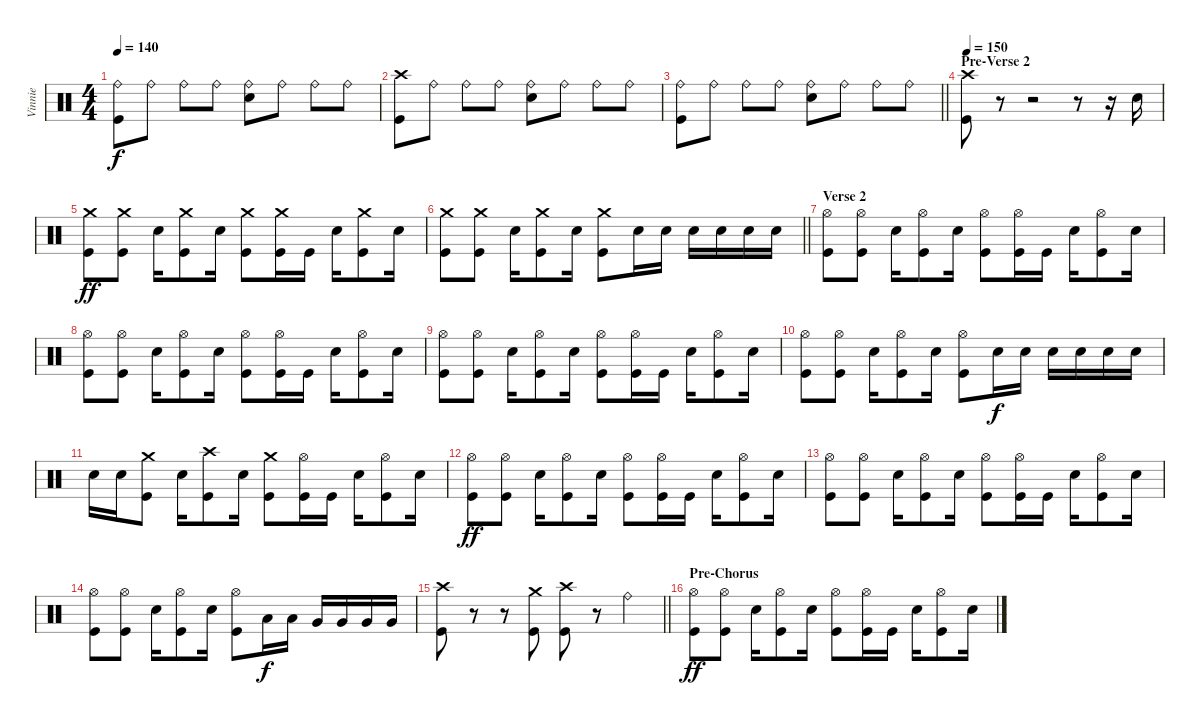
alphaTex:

\track ("Vinnie" "Vinnie") {instrument percussion}
\staff {score}
\articulation defaults
\ts (4 4)
\tempo 140
\clef neutral
\ks c
("Ride (bell)" "Kick (hit)").8{dy f} "Ride (bell)".8 "Ride (bell)".8 "Ride (bell)".8 ("Ride (bell)" "Electric Snare (hit)").8 "Ride (bell)".8 "Ride (bell)".8 "Ride (bell)".8 |
("Crash high (hit)" "Kick (hit)").8 "Ride (bell)".8 "Ride (bell)".8 "Ride (bell)".8 ("Ride (bell)" "Electric Snare (hit)").8 "Ride (bell)".8 "Ride (bell)".8 "Ride (bell)".8 |
\barLineRight lightlight
("Ride (bell)" "Kick (hit)").8 "Ride (bell)".8 "Ride (bell)".8 "Ride (bell)".8 ("Ride (bell)" "Electric Snare (hit)").8 "Ride (bell)".8 "Ride (bell)".8 "Ride (bell)".8 |
\section ("" "Pre-Verse 2")
\tempo 150
("Crash high (hit)" "Kick (hit)").8 r.8{volume 0} r.2 r.8 r.16 "Electric Snare (hit)".16{volume 16} |
("Crash medium (hit)" "Kick (hit)").8{dy ff} ("Crash medium (hit)" "Kick (hit)").8 "Electric Snare (hit)".16 ("Crash medium (hit)" "Kick (hit)").8 "Electric Snare (hit)".16 ("Crash medium (hit)" "Kick (hit)").8 ("Crash medium (hit)" "Kick (hit)").16 "Kick (hit)".16 "Electric Snare (hit)".16 ("Crash medium (hit)" "Kick (hit)").8 "Electric Snare (hit)".16 |
\barLineRight lightlight
("Crash medium (hit)" "Kick (hit)").8 ("Crash medium (hit)" "Kick (hit)").8 "Electric Snare (hit)".16 ("Crash medium (hit)" "Kick (hit)").8 "Electric Snare (hit)".16 ("Crash medium (hit)" "Kick (hit)").8 "Electric Snare (hit)".16 "Electric Snare (hit)".16 "Electric Snare (hit)".16 "Electric Snare (hit)".16 "Electric Snare (hit)".16 "Electric Snare (hit)".16 |
\section ("" "Verse 2")
("Hi-Hat (open)" "Kick (hit)").8 ("Hi-Hat (open)" "Kick (hit)").8 "Electric Snare (hit)".16 ("Hi-Hat (open)" "Kick (hit)").8 "Electric Snare (hit)".16 ("Hi-Hat (open)" "Kick (hit)").8 ("Hi-Hat (open)" "Kick (hit)").16 "Kick (hit)".16 "Electric Snare (hit)".16 ("Hi-Hat (open)" "Kick (hit)").8 "Electric Snare (hit)".16 |
("Hi-Hat (open)" "Kick (hit)").8 ("Hi-Hat (open)" "Kick (hit)").8 "Electric Snare (hit)".16 ("Hi-Hat (open)" "Kick (hit)").8 "Electric Snare (hit)".16 ("Hi-Hat (open)" "Kick (hit)").8 ("Hi-Hat (open)" "Kick (hit)").16 "Kick (hit)".16 "Electric Snare (hit)".16 ("Hi-Hat (open)" "Kick (hit)").8 "Electric Snare (hit)".16 |
("Hi-Hat (open)" "Kick (hit)").8 ("Hi-Hat (open)" "Kick (hit)").8 "Electric Snare (hit)".16 ("Hi-Hat (open)" "Kick (hit)").8 "Electric Snare (hit)".16 ("Hi-Hat (open)" "Kick (hit)").8 ("Hi-Hat (open)" "Kick (hit)").16 "Kick (hit)".16 "Electric Snare (hit)".16 ("Hi-Hat (open)" "Kick (hit)").8 "Electric Snare (hit)".16 |
("Hi-Hat (open)" "Kick (hit)").8 ("Hi-Hat (open)" "Kick (hit)").8 "Electric Snare (hit)".16 ("Hi-Hat (open)" "Kick (hit)").8 "Electric Snare (hit)".16 ("Hi-Hat (open)" "Kick (hit)").8 "Electric Snare (hit)".16{dy f} "Electric Snare (hit)".16 "Electric Snare (hit)".16 "Electric Snare (hit)".16 "Electric Snare (hit)".16 "Electric Snare (hit)".16 |
"Electric Snare (hit)".16 "Electric Snare (hit)".16 ("Crash medium (hit)" "Kick (hit)").8 "Electric Snare (hit)".16 ("Crash high (hit)" "Kick (hit)").8 "Electric Snare (hit)".16 ("Crash medium (hit)" "Kick (hit)").8 ("Hi-Hat (open)" "Kick (hit)").16 "Kick (hit)".16 "Electric Snare (hit)".16 ("Hi-Hat (open)" "Kick (hit)").8 "Electric Snare (hit)".16 |
("Hi-Hat (open)" "Kick (hit)").8{dy ff} ("Hi-Hat (open)" "Kick (hit)").8 "Electric Snare (hit)".16 ("Hi-Hat (open)" "Kick (hit)").8 "Electric Snare (hit)".16 ("Hi-Hat (open)" "Kick (hit)").8 ("Hi-Hat (open)" "Kick (hit)").16 "Kick (hit)".16 "Electric Snare (hit)".16 ("Hi-Hat (open)" "Kick (hit)").8 "Electric Snare (hit)".16 |
("Hi-Hat (open)" "Kick (hit)").8 ("Hi-Hat (open)" "Kick (hit)").8 "Electric Snare (hit)".16 ("Hi-Hat (open)" "Kick (hit)").8 "Electric Snare (hit)".16 ("Hi-Hat (open)" "Kick (hit)").8 ("Hi-Hat (open)" "Kick (hit)").16 "Kick (hit)".16 "Electric Snare (hit)".16 ("Hi-Hat (open)" "Kick (hit)").8 "Electric Snare (hit)".16 |
("Hi-Hat (open)" "Kick (hit)").8 ("Hi-Hat (open)" "Kick (hit)").8 "Electric Snare (hit)".16 ("Hi-Hat (open)" "Kick (hit)").8 "Electric Snare (hit)".16 ("Hi-Hat (open)" "Kick (hit)").8 "Low Tom (hit)".16{dy f} "Low Tom (hit)".16 "Very Low Tom (hit)".16 "Very Low Tom (hit)".16 "Very Low Tom (hit)".16 "Very Low Tom (hit)".16 |
\barLineRight lightlight
("Crash high (hit)" "Kick (hit)").8 r.8{volume 0} r.8 ("Crash medium (hit)" "Kick (hit)").8{volume 16} ("Crash high (hit)" "Kick (hit)").8 r.8{volume 0} "Ride (bell)".4{volume 16} |
\section ("" "Pre-Chorus")
("Hi-Hat (open)" "Kick (hit)").8{dy ff} ("Hi-Hat (open)" "Kick (hit)").8 "Electric Snare (hit)".16 ("Hi-Hat (open)" "Kick (hit)").8 "Electric Snare (hit)".16 ("Hi-Hat (open)" "Kick (hit)").8 ("Hi-Hat (open)" "Kick (hit)").16 "Kick (hit)".16 "Electric Snare (hit)".16 ("Hi-Hat (open)" "Kick (hit)").8 "Electric Snare (hit)".16
